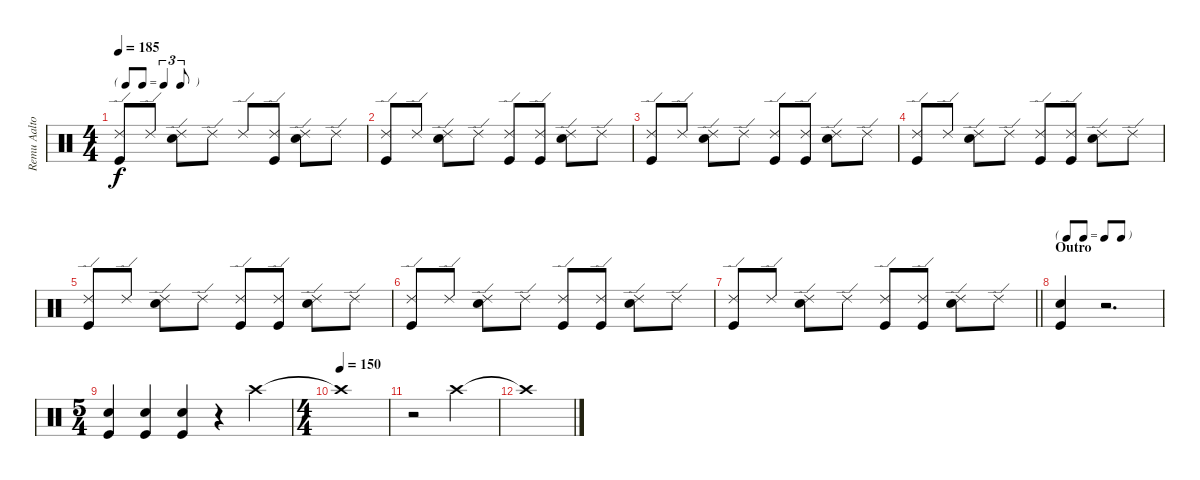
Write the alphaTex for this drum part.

\track ("Remu Aaltonen" "Remu Aalto") {instrument percussion}
\staff {score}
\articulation defaults
\ts (4 4)
\tf triplet8th
\tempo 185
\clef neutral
\ks c
("Ride (edge) 2" "Kick (hit)").8{dy f} "Ride (edge) 2".8 ("Ride (edge) 2" "Snare (hit) 2").8 "Ride (edge) 2".8 "Ride (edge) 2".8 ("Ride (edge) 2" "Kick (hit)").8 ("Ride (edge) 2" "Snare (hit) 2").8 "Ride (edge) 2".8 |
("Ride (edge) 2" "Kick (hit)").8 "Ride (edge) 2".8 ("Ride (edge) 2" "Snare (hit) 2").8 "Ride (edge) 2".8 ("Ride (edge) 2" "Kick (hit)").8 ("Ride (edge) 2" "Kick (hit)").8 ("Ride (edge) 2" "Snare (hit) 2").8 "Ride (edge) 2".8 |
("Ride (edge) 2" "Kick (hit)").8 "Ride (edge) 2".8 ("Ride (edge) 2" "Snare (hit) 2").8 "Ride (edge) 2".8 ("Ride (edge) 2" "Kick (hit)").8 ("Ride (edge) 2" "Kick (hit)").8 ("Ride (edge) 2" "Snare (hit) 2").8 "Ride (edge) 2".8 |
("Ride (edge) 2" "Kick (hit)").8 "Ride (edge) 2".8 ("Ride (edge) 2" "Snare (hit) 2").8 "Ride (edge) 2".8 ("Ride (edge) 2" "Kick (hit)").8 ("Ride (edge) 2" "Kick (hit)").8 ("Ride (edge) 2" "Snare (hit) 2").8 "Ride (edge) 2".8 |
("Ride (edge) 2" "Kick (hit)").8 "Ride (edge) 2".8 ("Ride (edge) 2" "Snare (hit) 2").8 "Ride (edge) 2".8 ("Ride (edge) 2" "Kick (hit)").8 ("Ride (edge) 2" "Kick (hit)").8 ("Ride (edge) 2" "Snare (hit) 2").8 "Ride (edge) 2".8 |
("Ride (edge) 2" "Kick (hit)").8 "Ride (edge) 2".8 ("Ride (edge) 2" "Snare (hit) 2").8 "Ride (edge) 2".8 ("Ride (edge) 2" "Kick (hit)").8 ("Ride (edge) 2" "Kick (hit)").8 ("Ride (edge) 2" "Snare (hit) 2").8 "Ride (edge) 2".8 |
\barLineRight lightlight
("Ride (edge) 2" "Kick (hit)").8 "Ride (edge) 2".8 ("Ride (edge) 2" "Snare (hit) 2").8 "Ride (edge) 2".8 ("Ride (edge) 2" "Kick (hit)").8 ("Ride (edge) 2" "Kick (hit)").8 ("Ride (edge) 2" "Snare (hit) 2").8 "Ride (edge) 2".8 |
\tf none
\section ("" "Outro")
("Snare (hit) 2" "Kick (hit)").4 r.2{d} |
\ts (5 4)
("Snare (hit) 2" "Kick (hit)").4 ("Snare (hit) 2" "Kick (hit)").4 ("Snare (hit) 2" "Kick (hit)").4 r.4 "Crash high (hit)".4 |
\ts (4 4)
\tempo (150)
"Crash high (hit)"{t}.1 |
r.2 "Crash high (hit)".2 |
"Crash high (hit)"{t}.1
